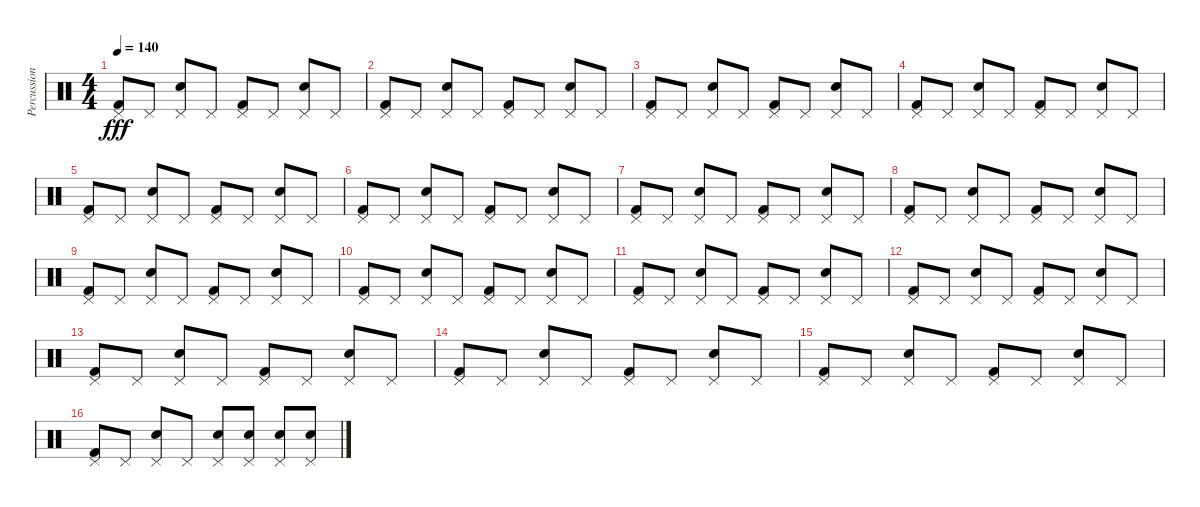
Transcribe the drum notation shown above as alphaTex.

\track ("Percussions" "Percussion") {instrument percussion}
\staff {score}
\articulation defaults
\ts (4 4)
\tempo 140
\clef neutral
\ks c
("Pedal Hi-Hat (hit)" "Kick (hit) 2").8{dy fff} "Pedal Hi-Hat (hit)".8 ("Pedal Hi-Hat (hit)" "Electric Snare (hit)").8 "Pedal Hi-Hat (hit)".8 ("Pedal Hi-Hat (hit)" "Kick (hit) 2").8 "Pedal Hi-Hat (hit)".8 ("Pedal Hi-Hat (hit)" "Electric Snare (hit)").8 "Pedal Hi-Hat (hit)".8 |
("Pedal Hi-Hat (hit)" "Kick (hit) 2").8 "Pedal Hi-Hat (hit)".8 ("Pedal Hi-Hat (hit)" "Electric Snare (hit)").8 "Pedal Hi-Hat (hit)".8 ("Pedal Hi-Hat (hit)" "Kick (hit) 2").8 "Pedal Hi-Hat (hit)".8 ("Pedal Hi-Hat (hit)" "Electric Snare (hit)").8 "Pedal Hi-Hat (hit)".8 |
("Pedal Hi-Hat (hit)" "Kick (hit) 2").8 "Pedal Hi-Hat (hit)".8 ("Pedal Hi-Hat (hit)" "Electric Snare (hit)").8 "Pedal Hi-Hat (hit)".8 ("Pedal Hi-Hat (hit)" "Kick (hit) 2").8 "Pedal Hi-Hat (hit)".8 ("Pedal Hi-Hat (hit)" "Electric Snare (hit)").8 "Pedal Hi-Hat (hit)".8 |
("Pedal Hi-Hat (hit)" "Kick (hit) 2").8 "Pedal Hi-Hat (hit)".8 ("Pedal Hi-Hat (hit)" "Electric Snare (hit)").8 "Pedal Hi-Hat (hit)".8 ("Pedal Hi-Hat (hit)" "Kick (hit) 2").8 "Pedal Hi-Hat (hit)".8 ("Pedal Hi-Hat (hit)" "Electric Snare (hit)").8 "Pedal Hi-Hat (hit)".8 |
("Pedal Hi-Hat (hit)" "Kick (hit) 2").8 "Pedal Hi-Hat (hit)".8 ("Pedal Hi-Hat (hit)" "Electric Snare (hit)").8 "Pedal Hi-Hat (hit)".8 ("Pedal Hi-Hat (hit)" "Kick (hit) 2").8 "Pedal Hi-Hat (hit)".8 ("Pedal Hi-Hat (hit)" "Electric Snare (hit)").8 "Pedal Hi-Hat (hit)".8 |
("Pedal Hi-Hat (hit)" "Kick (hit) 2").8 "Pedal Hi-Hat (hit)".8 ("Pedal Hi-Hat (hit)" "Electric Snare (hit)").8 "Pedal Hi-Hat (hit)".8 ("Pedal Hi-Hat (hit)" "Kick (hit) 2").8 "Pedal Hi-Hat (hit)".8 ("Pedal Hi-Hat (hit)" "Electric Snare (hit)").8 "Pedal Hi-Hat (hit)".8 |
("Pedal Hi-Hat (hit)" "Kick (hit) 2").8 "Pedal Hi-Hat (hit)".8 ("Pedal Hi-Hat (hit)" "Electric Snare (hit)").8 "Pedal Hi-Hat (hit)".8 ("Pedal Hi-Hat (hit)" "Kick (hit) 2").8 "Pedal Hi-Hat (hit)".8 ("Pedal Hi-Hat (hit)" "Electric Snare (hit)").8 "Pedal Hi-Hat (hit)".8 |
("Pedal Hi-Hat (hit)" "Kick (hit) 2").8 "Pedal Hi-Hat (hit)".8 ("Pedal Hi-Hat (hit)" "Electric Snare (hit)").8 "Pedal Hi-Hat (hit)".8 ("Pedal Hi-Hat (hit)" "Kick (hit) 2").8 "Pedal Hi-Hat (hit)".8 ("Pedal Hi-Hat (hit)" "Electric Snare (hit)").8 "Pedal Hi-Hat (hit)".8 |
("Pedal Hi-Hat (hit)" "Kick (hit) 2").8 "Pedal Hi-Hat (hit)".8 ("Pedal Hi-Hat (hit)" "Electric Snare (hit)").8 "Pedal Hi-Hat (hit)".8 ("Pedal Hi-Hat (hit)" "Kick (hit) 2").8 "Pedal Hi-Hat (hit)".8 ("Pedal Hi-Hat (hit)" "Electric Snare (hit)").8 "Pedal Hi-Hat (hit)".8 |
("Pedal Hi-Hat (hit)" "Kick (hit) 2").8 "Pedal Hi-Hat (hit)".8 ("Pedal Hi-Hat (hit)" "Electric Snare (hit)").8 "Pedal Hi-Hat (hit)".8 ("Pedal Hi-Hat (hit)" "Kick (hit) 2").8 "Pedal Hi-Hat (hit)".8 ("Pedal Hi-Hat (hit)" "Electric Snare (hit)").8 "Pedal Hi-Hat (hit)".8 |
("Pedal Hi-Hat (hit)" "Kick (hit) 2").8 "Pedal Hi-Hat (hit)".8 ("Pedal Hi-Hat (hit)" "Electric Snare (hit)").8 "Pedal Hi-Hat (hit)".8 ("Pedal Hi-Hat (hit)" "Kick (hit) 2").8 "Pedal Hi-Hat (hit)".8 ("Pedal Hi-Hat (hit)" "Electric Snare (hit)").8 "Pedal Hi-Hat (hit)".8 |
("Pedal Hi-Hat (hit)" "Kick (hit) 2").8 "Pedal Hi-Hat (hit)".8 ("Pedal Hi-Hat (hit)" "Electric Snare (hit)").8 "Pedal Hi-Hat (hit)".8 ("Pedal Hi-Hat (hit)" "Kick (hit) 2").8 "Pedal Hi-Hat (hit)".8 ("Pedal Hi-Hat (hit)" "Electric Snare (hit)").8 "Pedal Hi-Hat (hit)".8 |
("Pedal Hi-Hat (hit)" "Kick (hit) 2").8 "Pedal Hi-Hat (hit)".8 ("Pedal Hi-Hat (hit)" "Electric Snare (hit)").8 "Pedal Hi-Hat (hit)".8 ("Pedal Hi-Hat (hit)" "Kick (hit) 2").8 "Pedal Hi-Hat (hit)".8 ("Pedal Hi-Hat (hit)" "Electric Snare (hit)").8 "Pedal Hi-Hat (hit)".8 |
("Pedal Hi-Hat (hit)" "Kick (hit) 2").8 "Pedal Hi-Hat (hit)".8 ("Pedal Hi-Hat (hit)" "Electric Snare (hit)").8 "Pedal Hi-Hat (hit)".8 ("Pedal Hi-Hat (hit)" "Kick (hit) 2").8 "Pedal Hi-Hat (hit)".8 ("Pedal Hi-Hat (hit)" "Electric Snare (hit)").8 "Pedal Hi-Hat (hit)".8 |
("Pedal Hi-Hat (hit)" "Kick (hit) 2").8 "Pedal Hi-Hat (hit)".8 ("Pedal Hi-Hat (hit)" "Electric Snare (hit)").8 "Pedal Hi-Hat (hit)".8 ("Pedal Hi-Hat (hit)" "Kick (hit) 2").8 "Pedal Hi-Hat (hit)".8 ("Pedal Hi-Hat (hit)" "Electric Snare (hit)").8 "Pedal Hi-Hat (hit)".8 |
("Pedal Hi-Hat (hit)" "Kick (hit) 2").8 "Pedal Hi-Hat (hit)".8 ("Pedal Hi-Hat (hit)" "Electric Snare (hit)").8 "Pedal Hi-Hat (hit)".8 ("Pedal Hi-Hat (hit)" "Electric Snare (hit)").8 ("Pedal Hi-Hat (hit)" "Electric Snare (hit)").8 ("Pedal Hi-Hat (hit)" "Electric Snare (hit)").8 ("Pedal Hi-Hat (hit)" "Electric Snare (hit)").8
